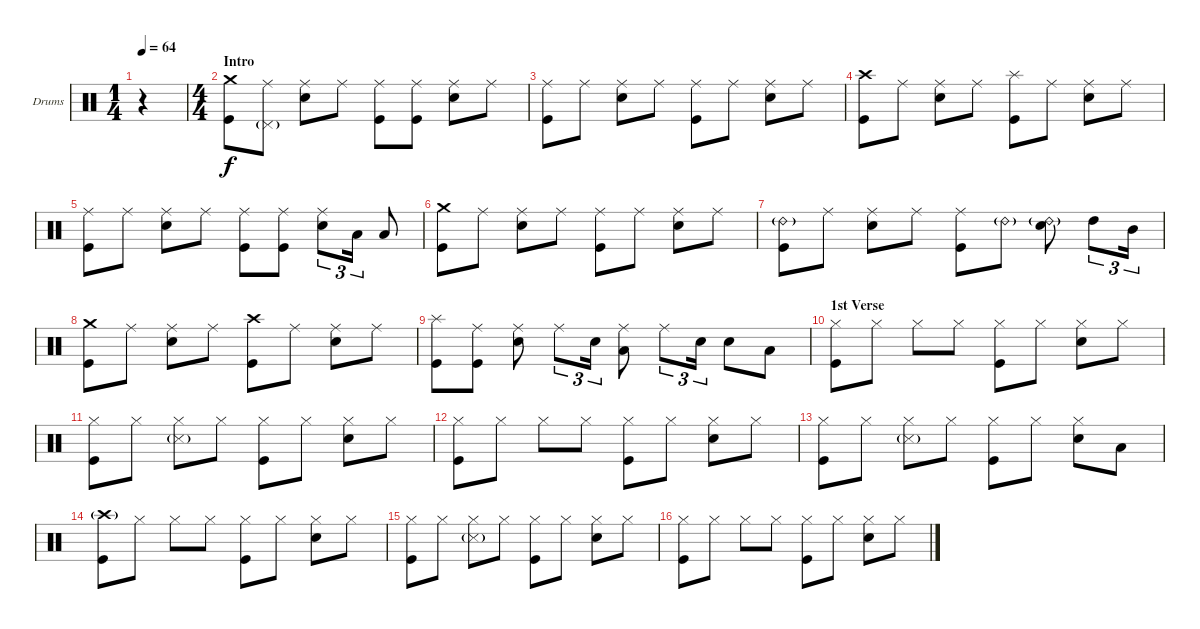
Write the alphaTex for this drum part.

\bracketExtendMode groupsimilarinstruments
\firstSystemTrackNameOrientation horizontal
\otherSystemsTrackNameOrientation horizontal
\track ("Drumkit" "Drums") {instrument percussion}
\staff {score}
\articulation defaults
\ts (1 4)
\tempo 64
\clef neutral
\ks c
r.4{dy f} |
\ts (4 4)
\section ("" "Intro")
("Crash medium (hit)" "Kick (hit)").8 ("Ride (middle)" "Pedal Hi-Hat (hit)"{g}).8 ("Ride (middle)" "Snare (hit) 2").8 "Ride (middle)".8 ("Ride (middle)" "Kick (hit)").8 ("Ride (middle)" "Kick (hit)").8 ("Ride (middle)" "Snare (hit) 2").8 "Ride (middle)".8 |
("Ride (middle)" "Kick (hit)").8 "Ride (middle)".8 ("Ride (middle)" "Snare (hit) 2").8 "Ride (middle)".8 ("Ride (middle)" "Kick (hit)").8 "Ride (middle)".8 ("Ride (middle)" "Snare (hit) 2").8 "Ride (middle)".8 |
("Crash high (hit)" "Kick (hit)").8 "Ride (middle)".8 ("Ride (middle)" "Snare (hit) 2").8 "Ride (middle)".8 ("Splash (hit)" "Kick (hit)").8 "Ride (middle)".8 ("Ride (middle)" "Snare (hit) 2").8 "Ride (middle)".8 |
("Ride (middle)" "Kick (hit)").8 "Ride (middle)".8 ("Ride (middle)" "Snare (hit) 2").8 "Ride (middle)".8 ("Ride (middle)" "Kick (hit)").8 ("Ride (middle)" "Kick (hit)").8 ("Ride (middle)" "Snare (hit) 2").8{tu (3 2)} "Low Tom (hit)".16{tu (3 2)} "Low Tom (hit)".8 |
("Crash medium (hit)" "Kick (hit)").8 "Ride (middle)".8 ("Ride (middle)" "Snare (hit) 2").8 "Ride (middle)".8 ("Ride (middle)" "Kick (hit)").8 "Ride (middle)".8 ("Ride (middle)" "Snare (hit) 2").8 "Ride (middle)".8 |
("Ride (bell) 2"{g} "Kick (hit)").8 "Ride (middle)".8 ("Ride (middle)" "Snare (hit) 2").8 "Ride (middle)".8 ("Ride (middle)" "Kick (hit)").8 "Ride (bell) 2"{g}.8 ("Ride (bell) 2"{g} "Snare (hit) 2").8 "High Tom (hit)".8{tu (3 2)} "Mid Tom (hit)".16{tu (3 2)} |
("Crash medium (hit)" "Kick (hit)").8 "Ride (middle)".8 ("Ride (middle)" "Snare (hit) 2").8 "Ride (middle)".8 ("Crash high (hit)" "Kick (hit)").8 "Ride (middle)".8 ("Ride (middle)" "Snare (hit) 2").8 "Ride (middle)".8 |
("Splash (hit)" "Kick (hit)").8 ("Ride (middle)" "Kick (hit)").8 ("Ride (middle)" "Snare (hit) 2").8 "Ride (middle)".8{tu (3 2)} "Snare (hit) 2".16{tu (3 2)} ("Ride (middle)" "Low Tom (hit)").8 "Ride (middle)".8{tu (3 2)} "Snare (hit) 2".16{tu (3 2)} "Snare (hit) 2".8 "Low Tom (hit)".8 |
\section ("" "1st Verse")
("Hi-Hat (closed)" "Kick (hit)").8 "Hi-Hat (closed)".8 "Hi-Hat (closed)".8 "Hi-Hat (closed)".8 ("Hi-Hat (closed)" "Kick (hit)").8 "Hi-Hat (closed)".8 ("Hi-Hat (closed)" "Snare (hit) 2").8 "Hi-Hat (closed)".8 |
("Hi-Hat (closed)" "Kick (hit)").8 "Hi-Hat (closed)".8 ("Hi-Hat (closed)" "Snare (side stick) 3"{g}).8 "Hi-Hat (closed)".8 ("Hi-Hat (closed)" "Kick (hit)").8 "Hi-Hat (closed)".8 ("Hi-Hat (closed)" "Snare (hit) 2").8 "Hi-Hat (closed)".8 |
("Hi-Hat (closed)" "Kick (hit)").8 "Hi-Hat (closed)".8 "Hi-Hat (closed)".8 "Hi-Hat (closed)".8 ("Hi-Hat (closed)" "Kick (hit)").8 "Hi-Hat (closed)".8 ("Hi-Hat (closed)" "Snare (hit) 2").8 "Hi-Hat (closed)".8 |
("Hi-Hat (closed)" "Kick (hit)").8 "Hi-Hat (closed)".8 ("Hi-Hat (closed)" "Snare (side stick) 3"{g}).8 "Hi-Hat (closed)".8 ("Hi-Hat (closed)" "Kick (hit)").8 "Hi-Hat (closed)".8 ("Hi-Hat (closed)" "Snare (hit) 2").8 "Low Tom (hit)".8 |
("Crash high (hit)"{g} "Kick (hit)").8 "Hi-Hat (closed)".8 "Hi-Hat (closed)".8 "Hi-Hat (closed)".8 ("Hi-Hat (closed)" "Kick (hit)").8 "Hi-Hat (closed)".8 ("Hi-Hat (closed)" "Snare (hit) 2").8 "Hi-Hat (closed)".8 |
("Hi-Hat (closed)" "Kick (hit)").8 "Hi-Hat (closed)".8 ("Hi-Hat (closed)" "Snare (side stick) 3"{g}).8 "Hi-Hat (closed)".8 ("Hi-Hat (closed)" "Kick (hit)").8 "Hi-Hat (closed)".8 ("Hi-Hat (closed)" "Snare (hit) 2").8 "Hi-Hat (closed)".8 |
("Hi-Hat (closed)" "Kick (hit)").8 "Hi-Hat (closed)".8 "Hi-Hat (closed)".8 "Hi-Hat (closed)".8 ("Hi-Hat (closed)" "Kick (hit)").8 "Hi-Hat (closed)".8 ("Hi-Hat (closed)" "Snare (hit) 2").8 "Hi-Hat (closed)".8
